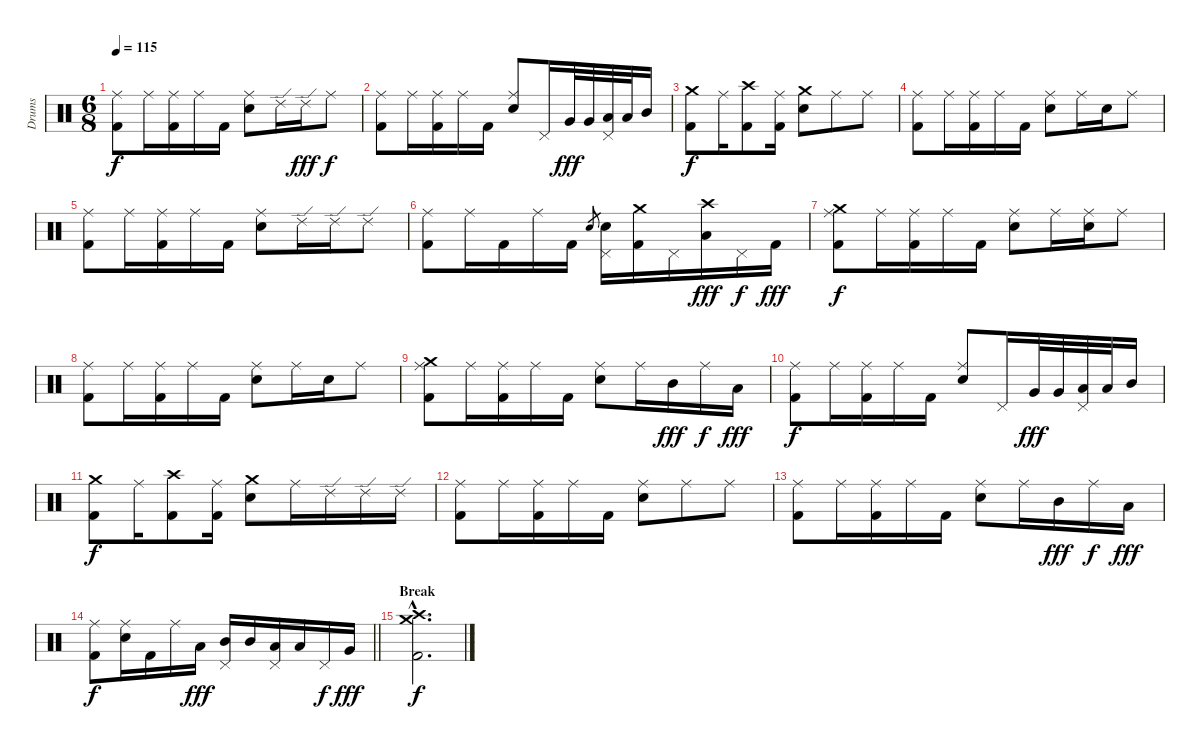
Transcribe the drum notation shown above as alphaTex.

\track ("Drums" "Drums") {instrument percussion}
\staff {score}
\articulation defaults
\ts (6 8)
\tempo 115
\clef neutral
\ks c
("Ride (middle)" "Kick (hit) 2").8{dy f} "Ride (middle)".16 ("Ride (middle)" "Kick (hit) 2").16 "Ride (middle)".16 "Kick (hit) 2".16 ("Ride (middle)" "Electric Snare (hit)").8 "Ride (edge) 2".16 "Ride (edge) 2".16{dy fff} "Ride (middle)".8{dy f} |
("Ride (middle)" "Kick (hit) 2").8 "Ride (middle)".16 ("Ride (middle)" "Kick (hit) 2").16 "Ride (middle)".16 "Kick (hit) 2".16 ("Ride (middle)" "Electric Snare (hit)").8 "Pedal Hi-Hat (hit)".16 "Very Low Tom (hit)".32{dy fff} "Very Low Tom (hit)".32 ("Pedal Hi-Hat (hit)" "Low Tom (hit)").32 "Low Tom (hit)".32 "Mid Tom (hit)".16 |
("Crash medium (hit)" "Kick (hit) 2").8{dy f} "Ride (middle)".16 ("Crash high (hit)" "Kick (hit) 2").8 ("Ride (middle)" "Kick (hit) 2").16 ("Crash medium (hit)" "Electric Snare (hit)").8 "Ride (middle)".8 "Ride (middle)".8 |
("Ride (middle)" "Kick (hit) 2").8 "Ride (middle)".16 ("Ride (middle)" "Kick (hit) 2").16 "Ride (middle)".16 "Kick (hit) 2".16 ("Ride (middle)" "Electric Snare (hit)").8 "Ride (middle)".16 "Electric Snare (hit)".16 "Ride (middle)".8 |
("Ride (middle)" "Kick (hit) 2").8 "Ride (middle)".16 ("Ride (middle)" "Kick (hit) 2").16 "Ride (middle)".16 "Kick (hit) 2".16 ("Ride (middle)" "Electric Snare (hit)").8 "Ride (edge) 2".16 "Ride (edge) 2".16 "Ride (edge) 2".8 |
("Ride (middle)" "Kick (hit) 2").8 "Ride (middle)".16 "Kick (hit) 2".16 "Ride (middle)".16 "Kick (hit) 2".16 "Electric Snare (hit)".8{gr} ("Pedal Hi-Hat (hit)" "Electric Snare (hit)").16 ("Crash medium (hit)" "Kick (hit) 2").16 "Pedal Hi-Hat (hit)".16 ("Crash high (hit)" "Low Tom (hit)").16{dy fff} "Pedal Hi-Hat (hit)".16{dy f} "Kick (hit) 2".16{dy fff} |
("Crash medium (hit)" "Ride (middle)" "Kick (hit) 2").8{dy f} "Ride (middle)".16 ("Ride (middle)" "Kick (hit) 2").16 "Ride (middle)".16 "Kick (hit) 2".16 ("Ride (middle)" "Electric Snare (hit)").8 "Ride (middle)".16 ("Ride (middle)" "Electric Snare (hit)").16 "Ride (middle)".8 |
("Ride (middle)" "Kick (hit) 2").8 "Ride (middle)".16 ("Ride (middle)" "Kick (hit) 2").16 "Ride (middle)".16 "Kick (hit) 2".16 ("Ride (middle)" "Electric Snare (hit)").8 "Ride (middle)".16 "Electric Snare (hit)".16 "Ride (middle)".8 |
("Crash medium (hit)" "Ride (middle)" "Kick (hit) 2").8 "Ride (middle)".16 ("Ride (middle)" "Kick (hit) 2").16 "Ride (middle)".16 "Kick (hit) 2".16 ("Ride (middle)" "Electric Snare (hit)").8 "Ride (middle)".16 "Mid Tom (hit)".16{dy fff} "Ride (middle)".16{dy f} "Low Tom (hit)".16{dy fff} |
("Ride (middle)" "Kick (hit) 2").8{dy f} "Ride (middle)".16 ("Ride (middle)" "Kick (hit) 2").16 "Ride (middle)".16 "Kick (hit) 2".16 ("Ride (middle)" "Electric Snare (hit)").8 "Pedal Hi-Hat (hit)".16 "Very Low Tom (hit)".32{dy fff} "Very Low Tom (hit)".32 ("Pedal Hi-Hat (hit)" "Low Tom (hit)").32 "Low Tom (hit)".32 "Mid Tom (hit)".16 |
("Crash medium (hit)" "Kick (hit) 2").8{dy f} "Ride (middle)".16 ("Crash high (hit)" "Kick (hit) 2").8 ("Ride (middle)" "Kick (hit) 2").16 ("Crash medium (hit)" "Electric Snare (hit)").8 "Ride (middle)".16 "Ride (edge) 2".16 "Ride (edge) 2".16 "Ride (edge) 2".16 |
("Ride (middle)" "Kick (hit) 2").8 "Ride (middle)".16 ("Ride (middle)" "Kick (hit) 2").16 "Ride (middle)".16 "Kick (hit) 2".16 ("Ride (middle)" "Electric Snare (hit)").8 "Ride (middle)".8 "Ride (middle)".8 |
("Ride (middle)" "Kick (hit) 2").8 "Ride (middle)".16 ("Ride (middle)" "Kick (hit) 2").16 "Ride (middle)".16 "Kick (hit) 2".16 ("Ride (middle)" "Electric Snare (hit)").8 "Ride (middle)".16 "Mid Tom (hit)".16{dy fff} "Ride (middle)".16{dy f} "Low Tom (hit)".16{dy fff} |
\barLineRight lightlight
("Ride (middle)" "Kick (hit) 2").8{dy f} ("Ride (middle)" "Electric Snare (hit)").16 "Kick (hit) 2".16 "Ride (middle)".16 "Low Tom (hit)".16{dy fff} ("Pedal Hi-Hat (hit)" "Mid Tom (hit)").16 "Mid Tom (hit)".16 ("Pedal Hi-Hat (hit)" "Low Tom (hit)").16 "Low Tom (hit)".16 "Pedal Hi-Hat (hit)".16{dy f} "Very Low Tom (hit)".16{dy fff} |
\section ("" "Break")
("Crash medium (hit)"{hac} "Crash high (hit)"{hac} "Kick (hit) 2"{hac}).2{d dy f}
